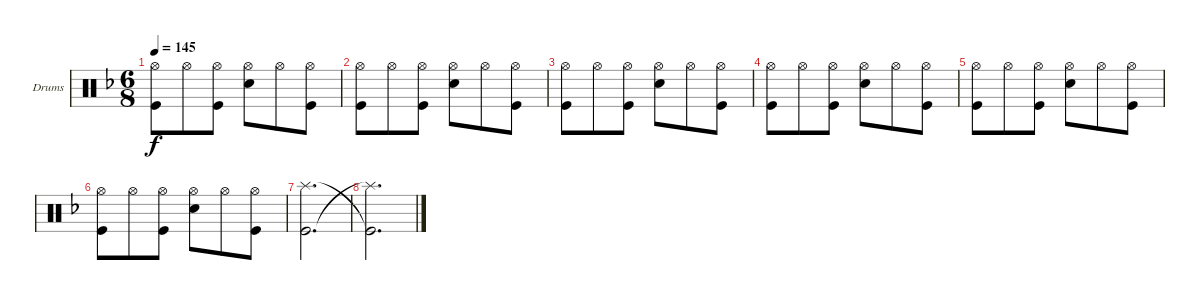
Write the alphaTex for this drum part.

\bracketExtendMode groupsimilarinstruments
\firstSystemTrackNameOrientation horizontal
\otherSystemsTrackNameOrientation horizontal
\track ("Drumkit" "Drums") {instrument percussion}
\staff {score}
\articulation defaults
\ts (6 8)
\tempo 145
\clef neutral
\ks f
("Hi-Hat (open)" "Kick (hit)").8{dy f} "Hi-Hat (open)".8 ("Hi-Hat (open)" "Kick (hit)").8 ("Hi-Hat (open)" "Snare (hit) 2").8 "Hi-Hat (open)".8 ("Hi-Hat (open)" "Kick (hit)").8 |
("Hi-Hat (open)" "Kick (hit)").8 "Hi-Hat (open)".8 ("Hi-Hat (open)" "Kick (hit)").8 ("Hi-Hat (open)" "Snare (hit) 2").8 "Hi-Hat (open)".8 ("Hi-Hat (open)" "Kick (hit)").8 |
("Hi-Hat (open)" "Kick (hit)").8 "Hi-Hat (open)".8 ("Hi-Hat (open)" "Kick (hit)").8 ("Hi-Hat (open)" "Snare (hit) 2").8 "Hi-Hat (open)".8 ("Hi-Hat (open)" "Kick (hit)").8 |
("Hi-Hat (open)" "Kick (hit)").8 "Hi-Hat (open)".8 ("Hi-Hat (open)" "Kick (hit)").8 ("Hi-Hat (open)" "Snare (hit) 2").8 "Hi-Hat (open)".8 ("Hi-Hat (open)" "Kick (hit)").8 |
("Hi-Hat (open)" "Kick (hit)").8 "Hi-Hat (open)".8 ("Hi-Hat (open)" "Kick (hit)").8 ("Hi-Hat (open)" "Snare (hit) 2").8 "Hi-Hat (open)".8 ("Hi-Hat (open)" "Kick (hit)").8 |
("Hi-Hat (open)" "Kick (hit)").8 "Hi-Hat (open)".8 ("Hi-Hat (open)" "Kick (hit)").8 ("Hi-Hat (open)" "Snare (hit) 2").8 "Hi-Hat (open)".8 ("Hi-Hat (open)" "Kick (hit)").8 |
("Splash (hit)" "Kick (hit)").2{d} |
("Kick (hit)"{t} "Splash (hit)"{t}).2{d}
